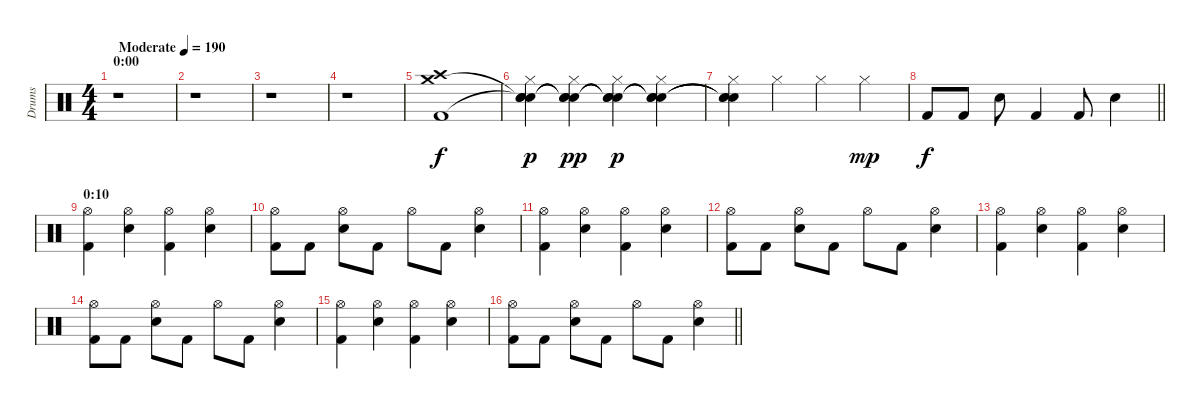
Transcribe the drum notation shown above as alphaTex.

\track ("Drums" "Drums") {instrument percussion}
\staff {score}
\articulation defaults
\ts (4 4)
\section ("" "0:00")
\tempo (190 "Moderate")
\clef neutral
\ks c
r.1{dy f} |
r.1 |
r.1 |
r.1 |
("Crash medium (hit)" "Crash high (hit)" "Kick (hit) 2").1 |
("Snare (hit)"{t} "Hi-Hat (closed)" "Snare (hit)"{t} "Snare (hit)").4{dy p} ("Snare (hit)"{t} "Hi-Hat (closed)" "Snare (hit)"{t} "Snare (hit)"{t}).4{dy pp} ("Snare (hit)"{t} "Hi-Hat (closed)" "Snare (hit)"{t} "Snare (hit)"{t}).4{dy p} ("Snare (hit)"{t} "Hi-Hat (closed)" "Snare (hit)"{t} "Snare (hit)"{t}).4 |
("Snare (hit)"{t} "Hi-Hat (closed)" "Snare (hit)"{t} "Snare (hit)"{t}).4 "Hi-Hat (closed)".4 "Hi-Hat (closed)".4 "Hi-Hat (closed)".4{dy mp} |
\barLineRight lightlight "Kick (hit) 2".8{dy f} "Kick (hit) 2".8 "Electric Snare (hit)".8 "Kick (hit) 2".4 "Kick (hit) 2".8 "Electric Snare (hit)".4
|
\section ("" "0:10")
("Hi-Hat (open)" "Kick (hit) 2").4 ("Hi-Hat (open)" "Electric Snare (hit)").4 ("Hi-Hat (open)" "Kick (hit) 2").4 ("Hi-Hat (open)" "Electric Snare (hit)").4 |
("Hi-Hat (open)" "Kick (hit) 2").8 "Kick (hit) 2".8 ("Hi-Hat (open)" "Electric Snare (hit)").8 "Kick (hit) 2".8 "Hi-Hat (open)".8 "Kick (hit) 2".8 ("Hi-Hat (open)" "Electric Snare (hit)").4 |
("Hi-Hat (open)" "Kick (hit) 2").4 ("Hi-Hat (open)" "Electric Snare (hit)").4 ("Hi-Hat (open)" "Kick (hit) 2").4 ("Hi-Hat (open)" "Electric Snare (hit)").4 |
("Hi-Hat (open)" "Kick (hit) 2").8 "Kick (hit) 2".8 ("Hi-Hat (open)" "Electric Snare (hit)").8 "Kick (hit) 2".8 "Hi-Hat (open)".8 "Kick (hit) 2".8 ("Hi-Hat (open)" "Electric Snare (hit)").4 |
("Hi-Hat (open)" "Kick (hit) 2").4 ("Hi-Hat (open)" "Electric Snare (hit)").4 ("Hi-Hat (open)" "Kick (hit) 2").4 ("Hi-Hat (open)" "Electric Snare (hit)").4 |
("Hi-Hat (open)" "Kick (hit) 2").8 "Kick (hit) 2".8 ("Hi-Hat (open)" "Electric Snare (hit)").8 "Kick (hit) 2".8 "Hi-Hat (open)".8 "Kick (hit) 2".8 ("Hi-Hat (open)" "Electric Snare (hit)").4 |
("Hi-Hat (open)" "Kick (hit) 2").4 ("Hi-Hat (open)" "Electric Snare (hit)").4 ("Hi-Hat (open)" "Kick (hit) 2").4 ("Hi-Hat (open)" "Electric Snare (hit)").4 |
\barLineRight lightlight
("Hi-Hat (open)" "Kick (hit) 2").8 "Kick (hit) 2".8 ("Hi-Hat (open)" "Electric Snare (hit)").8 "Kick (hit) 2".8 "Hi-Hat (open)".8 "Kick (hit) 2".8 ("Hi-Hat (open)" "Electric Snare (hit)").4
